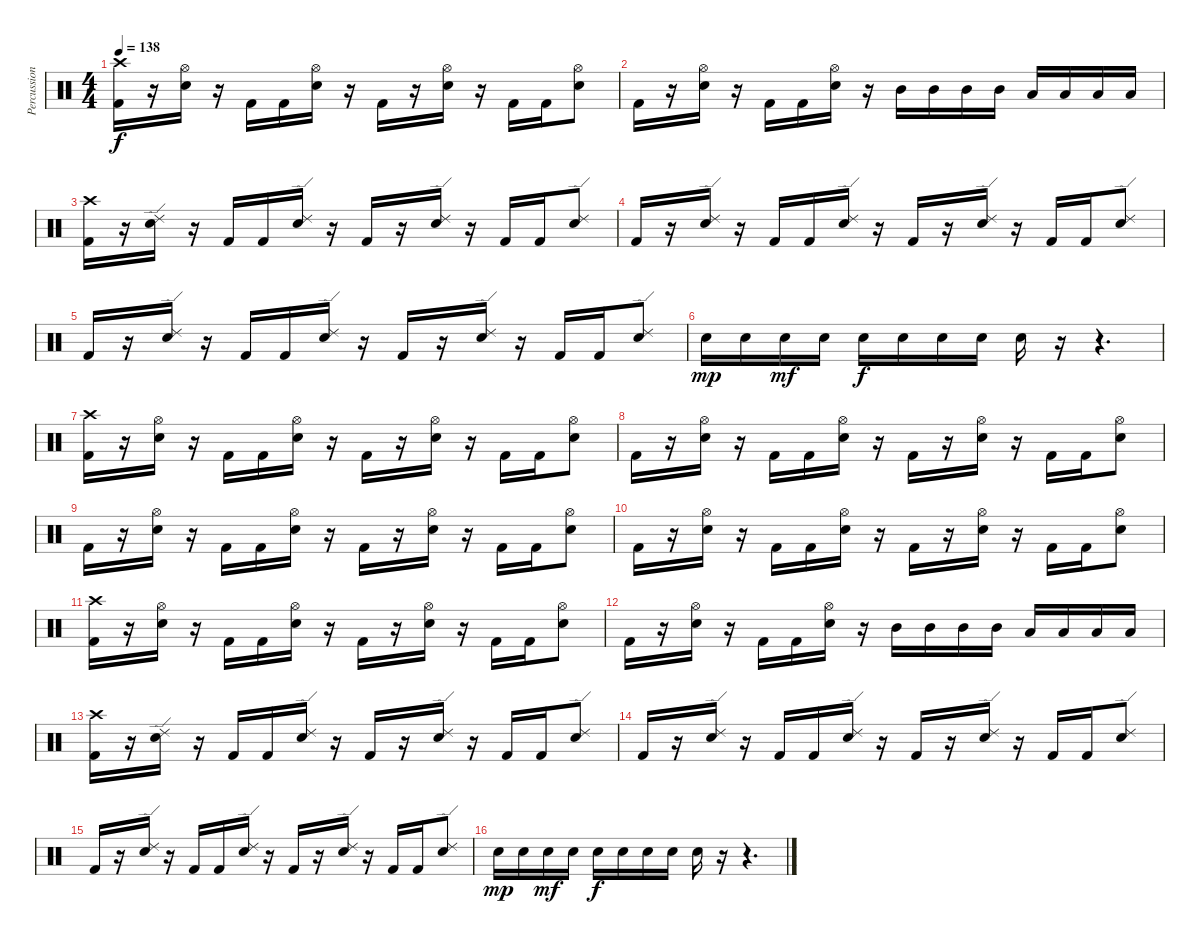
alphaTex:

\track ("Percussion" "Percussion") {instrument percussion}
\staff {score}
\articulation defaults
\ts (4 4)
\tempo 138
\clef neutral
\ks c
("Crash high (hit)" "Kick (hit) 2").16{dy f} r.16 ("Hi-Hat (open)" "Electric Snare (hit)").16 r.16 "Kick (hit) 2".16 "Kick (hit) 2".16 ("Hi-Hat (open)" "Electric Snare (hit)").16 r.16 "Kick (hit) 2".16 r.16 ("Hi-Hat (open)" "Electric Snare (hit)").16 r.16 "Kick (hit) 2".16 "Kick (hit) 2".16 ("Hi-Hat (open)" "Electric Snare (hit)").8 |
"Kick (hit) 2".16 r.16 ("Hi-Hat (open)" "Electric Snare (hit)").16 r.16 "Kick (hit) 2".16 "Kick (hit) 2".16 ("Hi-Hat (open)" "Electric Snare (hit)").16 r.16 "Mid Tom (hit)".16 "Mid Tom (hit)".16 "Mid Tom (hit)".16 "Mid Tom (hit)".16 "Low Tom (hit)".16 "Low Tom (hit)".16 "Low Tom (hit)".16 "Low Tom (hit)".16 |
("Crash high (hit)" "Kick (hit) 2").16 r.16 ("Ride (edge) 2" "Electric Snare (hit)").16 r.16 "Kick (hit) 2".16 "Kick (hit) 2".16 ("Ride (edge) 2" "Electric Snare (hit)").16 r.16 "Kick (hit) 2".16 r.16 ("Ride (edge) 2" "Electric Snare (hit)").16 r.16 "Kick (hit) 2".16 "Kick (hit) 2".16 ("Ride (edge) 2" "Electric Snare (hit)").8 |
"Kick (hit) 2".16 r.16 ("Ride (edge) 2" "Electric Snare (hit)").16 r.16 "Kick (hit) 2".16 "Kick (hit) 2".16 ("Ride (edge) 2" "Electric Snare (hit)").16 r.16 "Kick (hit) 2".16 r.16 ("Ride (edge) 2" "Electric Snare (hit)").16 r.16 "Kick (hit) 2".16 "Kick (hit) 2".16 ("Ride (edge) 2" "Electric Snare (hit)").8 |
"Kick (hit) 2".16 r.16 ("Ride (edge) 2" "Electric Snare (hit)").16 r.16 "Kick (hit) 2".16 "Kick (hit) 2".16 ("Ride (edge) 2" "Electric Snare (hit)").16 r.16 "Kick (hit) 2".16 r.16 ("Ride (edge) 2" "Electric Snare (hit)").16 r.16 "Kick (hit) 2".16 "Kick (hit) 2".16 ("Ride (edge) 2" "Electric Snare (hit)").8 |
"Electric Snare (hit)".16{dy mp} "Electric Snare (hit)".16 "Electric Snare (hit)".16{dy mf} "Electric Snare (hit)".16 "Electric Snare (hit)".16{dy f} "Electric Snare (hit)".16 "Electric Snare (hit)".16 "Electric Snare (hit)".16 "Electric Snare (hit)".16 r.16 r.4{d} |
("Crash high (hit)" "Kick (hit) 2").16 r.16 ("Hi-Hat (open)" "Electric Snare (hit)").16 r.16 "Kick (hit) 2".16 "Kick (hit) 2".16 ("Hi-Hat (open)" "Electric Snare (hit)").16 r.16 "Kick (hit) 2".16 r.16 ("Hi-Hat (open)" "Electric Snare (hit)").16 r.16 "Kick (hit) 2".16 "Kick (hit) 2".16 ("Hi-Hat (open)" "Electric Snare (hit)").8 |
"Kick (hit) 2".16 r.16 ("Hi-Hat (open)" "Electric Snare (hit)").16 r.16 "Kick (hit) 2".16 "Kick (hit) 2".16 ("Hi-Hat (open)" "Electric Snare (hit)").16 r.16 "Kick (hit) 2".16 r.16 ("Hi-Hat (open)" "Electric Snare (hit)").16 r.16 "Kick (hit) 2".16 "Kick (hit) 2".16 ("Hi-Hat (open)" "Electric Snare (hit)").8 |
"Kick (hit) 2".16 r.16 ("Hi-Hat (open)" "Electric Snare (hit)").16 r.16 "Kick (hit) 2".16 "Kick (hit) 2".16 ("Hi-Hat (open)" "Electric Snare (hit)").16 r.16 "Kick (hit) 2".16 r.16 ("Hi-Hat (open)" "Electric Snare (hit)").16 r.16 "Kick (hit) 2".16 "Kick (hit) 2".16 ("Hi-Hat (open)" "Electric Snare (hit)").8 |
"Kick (hit) 2".16 r.16 ("Hi-Hat (open)" "Electric Snare (hit)").16 r.16 "Kick (hit) 2".16 "Kick (hit) 2".16 ("Hi-Hat (open)" "Electric Snare (hit)").16 r.16 "Kick (hit) 2".16 r.16 ("Hi-Hat (open)" "Electric Snare (hit)").16 r.16 "Kick (hit) 2".16 "Kick (hit) 2".16 ("Hi-Hat (open)" "Electric Snare (hit)").8 |
("Crash high (hit)" "Kick (hit) 2").16 r.16 ("Hi-Hat (open)" "Electric Snare (hit)").16 r.16 "Kick (hit) 2".16 "Kick (hit) 2".16 ("Hi-Hat (open)" "Electric Snare (hit)").16 r.16 "Kick (hit) 2".16 r.16 ("Hi-Hat (open)" "Electric Snare (hit)").16 r.16 "Kick (hit) 2".16 "Kick (hit) 2".16 ("Hi-Hat (open)" "Electric Snare (hit)").8 |
"Kick (hit) 2".16 r.16 ("Hi-Hat (open)" "Electric Snare (hit)").16 r.16 "Kick (hit) 2".16 "Kick (hit) 2".16 ("Hi-Hat (open)" "Electric Snare (hit)").16 r.16 "Mid Tom (hit)".16 "Mid Tom (hit)".16 "Mid Tom (hit)".16 "Mid Tom (hit)".16 "Low Tom (hit)".16 "Low Tom (hit)".16 "Low Tom (hit)".16 "Low Tom (hit)".16 |
("Crash high (hit)" "Kick (hit) 2").16 r.16 ("Ride (edge) 2" "Electric Snare (hit)").16 r.16 "Kick (hit) 2".16 "Kick (hit) 2".16 ("Ride (edge) 2" "Electric Snare (hit)").16 r.16 "Kick (hit) 2".16 r.16 ("Ride (edge) 2" "Electric Snare (hit)").16 r.16 "Kick (hit) 2".16 "Kick (hit) 2".16 ("Ride (edge) 2" "Electric Snare (hit)").8 |
"Kick (hit) 2".16 r.16 ("Ride (edge) 2" "Electric Snare (hit)").16 r.16 "Kick (hit) 2".16 "Kick (hit) 2".16 ("Ride (edge) 2" "Electric Snare (hit)").16 r.16 "Kick (hit) 2".16 r.16 ("Ride (edge) 2" "Electric Snare (hit)").16 r.16 "Kick (hit) 2".16 "Kick (hit) 2".16 ("Ride (edge) 2" "Electric Snare (hit)").8 |
"Kick (hit) 2".16 r.16 ("Ride (edge) 2" "Electric Snare (hit)").16 r.16 "Kick (hit) 2".16 "Kick (hit) 2".16 ("Ride (edge) 2" "Electric Snare (hit)").16 r.16 "Kick (hit) 2".16 r.16 ("Ride (edge) 2" "Electric Snare (hit)").16 r.16 "Kick (hit) 2".16 "Kick (hit) 2".16 ("Ride (edge) 2" "Electric Snare (hit)").8 |
"Electric Snare (hit)".16{dy mp} "Electric Snare (hit)".16 "Electric Snare (hit)".16{dy mf} "Electric Snare (hit)".16 "Electric Snare (hit)".16{dy f} "Electric Snare (hit)".16 "Electric Snare (hit)".16 "Electric Snare (hit)".16 "Electric Snare (hit)".16 r.16 r.4{d}
